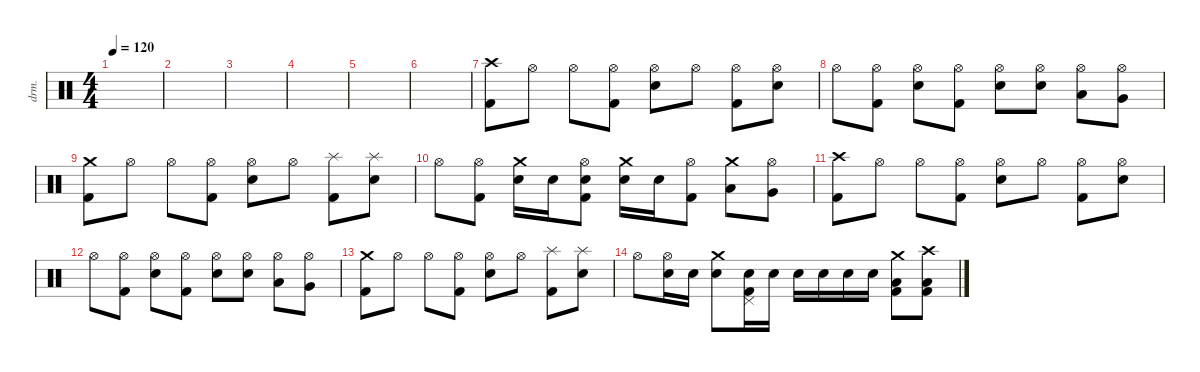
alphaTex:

\defaultSystemsLayout 4
\hideDynamics
\bracketExtendMode nobrackets
\track ("Drumkit" "drm.") {instrument percussion}
\staff {score}
\articulation defaults
\ts (4 4)
\tempo 120
\clef neutral
\ks c
|
|
|
|
|
|
("Crash high (hit)" "Kick (hit) 2").8{beam Down} "Hi-Hat (open)".8{beam Down} "Hi-Hat (open)".8{beam Down} ("Hi-Hat (open)" "Kick (hit) 2").8{beam Down} ("Hi-Hat (open)" "Snare (hit) 2").8{beam Down} "Hi-Hat (open)".8{beam Down} ("Hi-Hat (open)" "Kick (hit) 2").8{beam Down} ("Hi-Hat (open)" "Snare (hit) 2").8{beam Down} |
"Hi-Hat (open)".8{beam Down} ("Hi-Hat (open)" "Kick (hit) 2").8{beam Down} ("Hi-Hat (open)" "Snare (hit) 2").8{beam Down} ("Hi-Hat (open)" "Kick (hit) 2").8{beam Down} ("Hi-Hat (open)" "Snare (hit) 2").8{beam Down} ("Hi-Hat (open)" "Snare (hit) 2").8{beam Down} ("Hi-Hat (open)" "Low Tom (hit)").8{beam Down} ("Hi-Hat (open)" "Very Low Tom (hit)").8{beam Down} |
("Crash medium (hit)" "Kick (hit) 2").8{beam Down} "Hi-Hat (open)".8{beam Down} "Hi-Hat (open)".8{beam Down} ("Hi-Hat (open)" "Kick (hit) 2").8{beam Down} ("Hi-Hat (open)" "Snare (hit) 2").8{beam Down} "Hi-Hat (open)".8{beam Down} ("Splash (hit)" "Kick (hit) 2").8{beam Down} ("Splash (hit)" "Snare (hit) 2").8{beam Down} |
"Hi-Hat (open)".8{beam Down} ("Hi-Hat (open)" "Kick (hit) 2").8{beam Down} ("Crash medium (hit)" "Snare (hit) 2").16{beam Down} "Snare (hit) 2".16{beam Down} ("Hi-Hat (open)" "Kick (hit) 2" "Snare (hit) 2").8{beam Down} ("Crash medium (hit)" "Snare (hit) 2").16{beam Down} "Snare (hit) 2".16{beam Down} ("Hi-Hat (open)" "Kick (hit) 2").8{beam Down} ("Crash medium (hit)" "Low Tom (hit)").8{beam Down} ("Hi-Hat (open)" "Very Low Tom (hit)").8{beam Down} |
("Crash high (hit)" "Kick (hit) 2").8{beam Down} "Hi-Hat (open)".8{beam Down} "Hi-Hat (open)".8{beam Down} ("Hi-Hat (open)" "Kick (hit) 2").8{beam Down} ("Hi-Hat (open)" "Snare (hit) 2").8{beam Down} "Hi-Hat (open)".8{beam Down} ("Hi-Hat (open)" "Kick (hit) 2").8{beam Down} ("Hi-Hat (open)" "Snare (hit) 2").8{beam Down} |
"Hi-Hat (open)".8{beam Down} ("Hi-Hat (open)" "Kick (hit) 2").8{beam Down} ("Hi-Hat (open)" "Snare (hit) 2").8{beam Down} ("Hi-Hat (open)" "Kick (hit) 2").8{beam Down} ("Hi-Hat (open)" "Snare (hit) 2").8{beam Down} ("Hi-Hat (open)" "Snare (hit) 2").8{beam Down} ("Hi-Hat (open)" "Low Tom (hit)").8{beam Down} ("Hi-Hat (open)" "Very Low Tom (hit)").8{beam Down} |
("Crash medium (hit)" "Kick (hit) 2").8{beam Down} "Hi-Hat (open)".8{beam Down} "Hi-Hat (open)".8{beam Down} ("Hi-Hat (open)" "Kick (hit) 2").8{beam Down} ("Hi-Hat (open)" "Snare (hit) 2").8{beam Down} "Hi-Hat (open)".8{beam Down} ("Splash (hit)" "Kick (hit) 2").8{beam Down} ("Splash (hit)" "Snare (hit) 2").8{beam Down} |
"Hi-Hat (open)".8{beam Down} ("Hi-Hat (open)" "Snare (hit) 2").16{beam Down} "Snare (hit) 2".16{beam Down} ("Crash medium (hit)" "Snare (hit) 2").8{beam Down} ("Pedal Hi-Hat (hit)" "Kick (hit) 2" "Snare (hit) 2").16{beam Down} "Snare (hit) 2".16{beam Down} "Snare (hit) 2".16{beam Down} "Snare (hit) 2".16{beam Down} "Snare (hit) 2".16{beam Down} "Snare (hit) 2".16{beam Down} ("Crash medium (hit)" "Kick (hit) 2" "Low Tom (hit)").8{beam Down} ("Crash high (hit)" "Low Tom (hit)" "Kick (hit) 2").8{beam Down}
